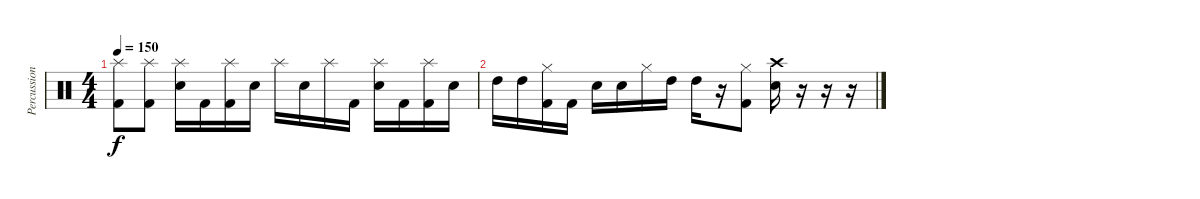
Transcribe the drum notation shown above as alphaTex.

\track ("Percussions" "Percussion") {instrument percussion}
\staff {score}
\articulation defaults
\ts (4 4)
\tempo 150
\clef neutral
\ks c
("Splash (hit)" "Kick (hit) 2").8{dy f} ("Splash (hit)" "Kick (hit) 2").8 ("Splash (hit)" "Electric Snare (hit)").16 "Kick (hit) 2".16 ("Splash (hit)" "Kick (hit) 2").16 "Electric Snare (hit)".16 "Splash (hit)".16 "Electric Snare (hit)".16 "Splash (hit)".16 "Kick (hit) 2".16 ("Splash (hit)" "Electric Snare (hit)").16 "Kick (hit) 2".16 ("Splash (hit)" "Kick (hit) 2").16 "Electric Snare (hit)".16 |
"High Tom (hit)".16 "High Tom (hit)".16 ("Hi-Hat (closed)" "Kick (hit) 2").16 "Kick (hit) 2".16 "Electric Snare (hit)".16 "Electric Snare (hit)".16 "Hi-Hat (closed)".16 "High Tom (hit)".16 "High Tom (hit)".16 r.16 ("Hi-Hat (closed)" "Kick (hit) 2").8 ("Crash high (hit)" "Electric Snare (hit)").16 r.16 r.16 r.16
